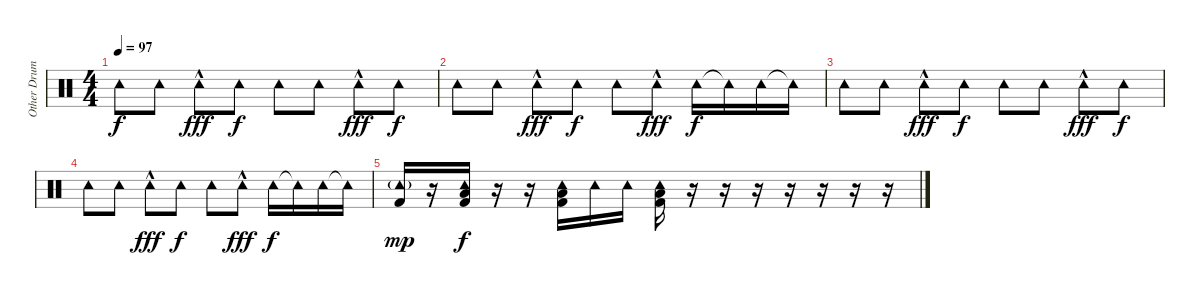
\track ("Other Drumer" "Other Drum") {instrument percussion}
\staff {score}
\articulation defaults
\ts (4 4)
\tempo 97
\clef neutral
\ks c "Tambourine (hit)".8{dy f} "Tambourine (hit)".8 "Tambourine (hit)"{hac}.8{dy fff} "Tambourine (hit)".8{dy f} "Tambourine (hit)".8 "Tambourine (hit)".8 "Tambourine (hit)"{hac}.8{dy fff} "Tambourine (hit)".8{dy f}
|
"Tambourine (hit)".8 "Tambourine (hit)".8 "Tambourine (hit)"{hac}.8{dy fff} "Tambourine (hit)".8{dy f} "Tambourine (hit)".8 "Tambourine (hit)"{hac}.8{dy fff} "Tambourine (hit)".16{dy f} "Tambourine (hit)"{t}.16 "Tambourine (hit)".16 "Tambourine (hit)"{t}.16 |
"Tambourine (hit)".8 "Tambourine (hit)".8 "Tambourine (hit)"{hac}.8{dy fff} "Tambourine (hit)".8{dy f} "Tambourine (hit)".8 "Tambourine (hit)".8 "Tambourine (hit)"{hac}.8{dy fff} "Tambourine (hit)".8{dy f} |
"Tambourine (hit)".8 "Tambourine (hit)".8 "Tambourine (hit)"{hac}.8{dy fff} "Tambourine (hit)".8{dy f} "Tambourine (hit)".8 "Tambourine (hit)"{hac}.8{dy fff} "Tambourine (hit)".16{dy f} "Tambourine (hit)"{t}.16 "Tambourine (hit)".16 "Tambourine (hit)"{t}.16 |
("Tambourine (hit)"{g} "Kick (hit) 2").16{dy mp} r.16 ("Tambourine (hit)" "Low Floor Tom (hit)" "Kick (hit) 2").16{dy f} r.16 r.16 ("Tambourine (hit)" "Low Floor Tom (hit)" "Kick (hit) 2").16 "Tambourine (hit)".16 "Tambourine (hit)".16 ("Tambourine (hit)" "Low Floor Tom (hit)" "Kick (hit) 2").16 r.16 r.16 r.16 r.16 r.16 r.16 r.16
